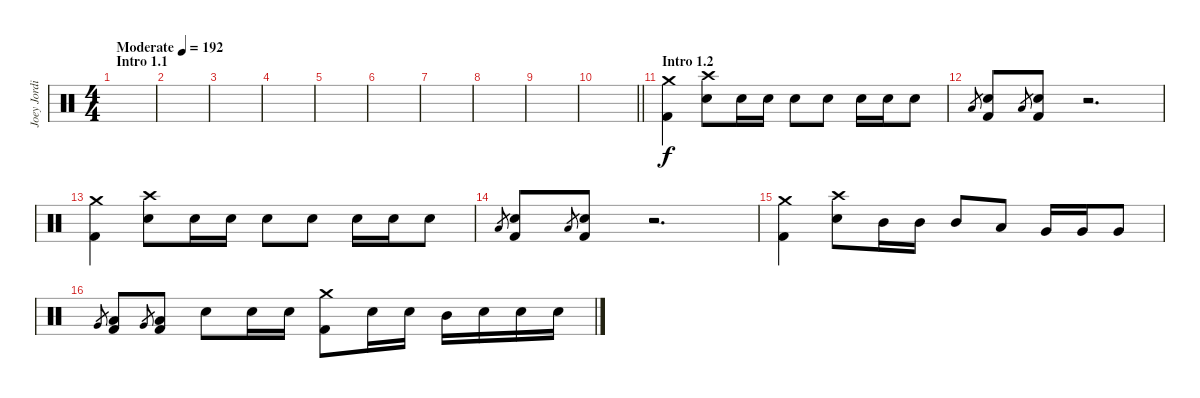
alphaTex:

\track ("Joey Jordison" "Joey Jordi") {instrument percussion}
\staff {score}
\articulation defaults
\ts (4 4)
\section ("" "Intro 1.1")
\tempo (192 "Moderate")
\clef neutral
\ks c
|
|
|
|
|
|
|
|
|
\barLineRight lightlight
|
\section ("" "Intro 1.2")
("Crash medium (hit)" "Kick (hit) 2").4 ("Crash high (hit)" "Electric Snare (hit)").8 "Electric Snare (hit)".16 "Electric Snare (hit)".16 "Electric Snare (hit)".8 "Electric Snare (hit)".8 "Electric Snare (hit)".16 "Electric Snare (hit)".16 "Electric Snare (hit)".8 |
"Low Floor Tom (hit)".8{gr} ("Electric Snare (hit)" "Kick (hit) 2").8 "Low Floor Tom (hit)".8{gr} ("Electric Snare (hit)" "Kick (hit) 2").8 r.2{d} |
("Crash medium (hit)" "Kick (hit) 2").4 ("Crash high (hit)" "Electric Snare (hit)").8 "Electric Snare (hit)".16 "Electric Snare (hit)".16 "Electric Snare (hit)".8 "Electric Snare (hit)".8 "Electric Snare (hit)".16 "Electric Snare (hit)".16 "Electric Snare (hit)".8 |
"Low Floor Tom (hit)".8{gr} ("Electric Snare (hit)" "Kick (hit) 2").8 "Low Floor Tom (hit)".8{gr} ("Electric Snare (hit)" "Kick (hit) 2").8 r.2{d} |
("Crash medium (hit)" "Kick (hit) 2").4 ("Crash high (hit)" "Electric Snare (hit)").8 "Mid Tom (hit)".16 "Mid Tom (hit)".16 "Mid Tom (hit)".8 "Low Tom (hit)".8 "Very Low Tom (hit)".16 "Very Low Tom (hit)".16 "Very Low Tom (hit)".8 |
"Very Low Tom (hit)".8{gr} ("Low Floor Tom (hit)" "Kick (hit) 2").8 "Very Low Tom (hit)".8{gr} ("Low Floor Tom (hit)" "Kick (hit) 2").8 "Electric Snare (hit)".8 "Electric Snare (hit)".16 "Electric Snare (hit)".16 ("Crash medium (hit)" "Kick (hit) 2").8 "Electric Snare (hit)".16 "Electric Snare (hit)".16 "Mid Tom (hit)".16 "Electric Snare (hit)".16 "Electric Snare (hit)".16 "Electric Snare (hit)".16
